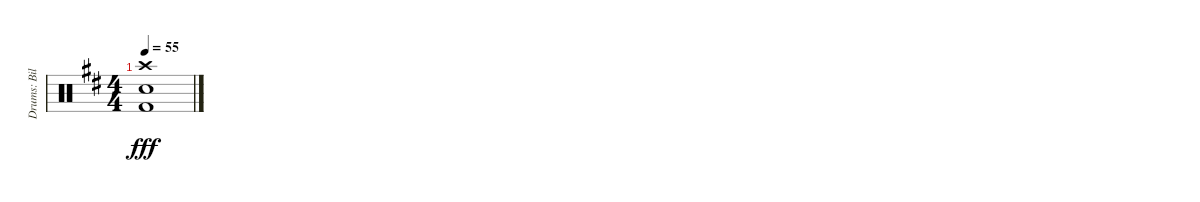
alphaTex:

\track ("Drums: Bill" "Drums: Bil") {instrument percussion}
\staff {score}
\articulation defaults
\ts (4 4)
\tempo 55
\clef neutral
\ks d
("Crash high (hit)" "Snare (hit) 2" "Kick (hit) 2").1{dy fff}
